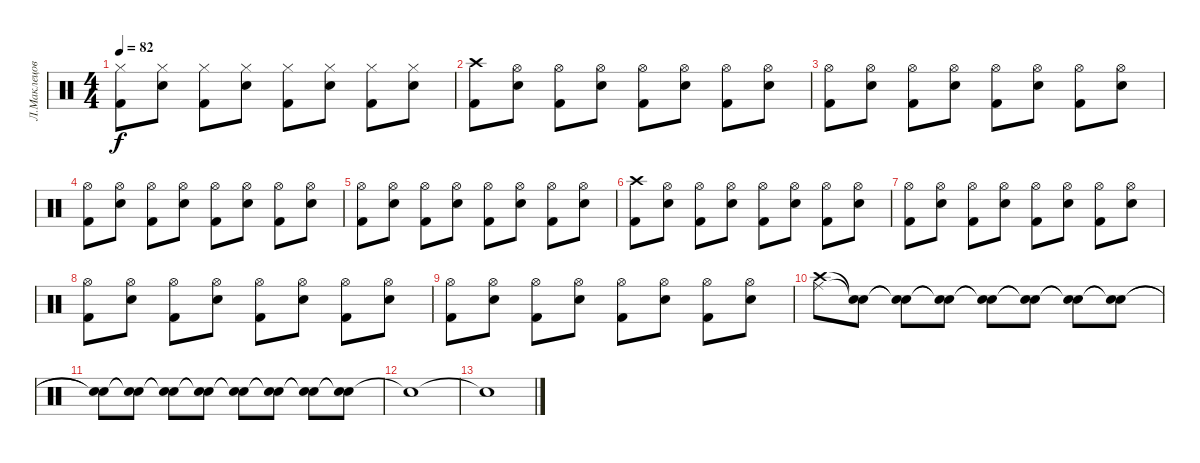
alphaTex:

\track ("Л.Маклецова" "Л.Маклецов") {instrument percussion}
\staff {score}
\articulation defaults
\ts (4 4)
\tempo 82
\clef neutral
\ks c
("Hi-Hat (closed)" "Kick (hit) 2").8{dy f} ("Hi-Hat (closed)" "Snare (hit) 2").8 ("Hi-Hat (closed)" "Kick (hit) 2").8 ("Hi-Hat (closed)" "Snare (hit) 2").8 ("Hi-Hat (closed)" "Kick (hit) 2").8 ("Hi-Hat (closed)" "Snare (hit) 2").8 ("Hi-Hat (closed)" "Kick (hit) 2").8 ("Hi-Hat (closed)" "Snare (hit) 2").8 |
("Crash high (hit)" "Kick (hit) 2").8 ("Hi-Hat (open)" "Snare (hit) 2").8 ("Hi-Hat (open)" "Kick (hit) 2").8 ("Hi-Hat (open)" "Snare (hit) 2").8 ("Hi-Hat (open)" "Kick (hit) 2").8 ("Hi-Hat (open)" "Snare (hit) 2").8 ("Hi-Hat (open)" "Kick (hit) 2").8 ("Hi-Hat (open)" "Snare (hit) 2").8 |
("Hi-Hat (open)" "Kick (hit) 2").8 ("Hi-Hat (open)" "Snare (hit) 2").8 ("Hi-Hat (open)" "Kick (hit) 2").8 ("Hi-Hat (open)" "Snare (hit) 2").8 ("Hi-Hat (open)" "Kick (hit) 2").8 ("Hi-Hat (open)" "Snare (hit) 2").8 ("Hi-Hat (open)" "Kick (hit) 2").8 ("Hi-Hat (open)" "Snare (hit) 2").8 |
("Hi-Hat (open)" "Kick (hit) 2").8 ("Hi-Hat (open)" "Snare (hit) 2").8 ("Hi-Hat (open)" "Kick (hit) 2").8 ("Hi-Hat (open)" "Snare (hit) 2").8 ("Hi-Hat (open)" "Kick (hit) 2").8 ("Hi-Hat (open)" "Snare (hit) 2").8 ("Hi-Hat (open)" "Kick (hit) 2").8 ("Hi-Hat (open)" "Snare (hit) 2").8 |
("Hi-Hat (open)" "Kick (hit) 2").8 ("Hi-Hat (open)" "Snare (hit) 2").8 ("Hi-Hat (open)" "Kick (hit) 2").8 ("Hi-Hat (open)" "Snare (hit) 2").8 ("Hi-Hat (open)" "Kick (hit) 2").8 ("Hi-Hat (open)" "Snare (hit) 2").8 ("Hi-Hat (open)" "Kick (hit) 2").8 ("Hi-Hat (open)" "Snare (hit) 2").8 |
("Crash high (hit)" "Kick (hit) 2").8 ("Hi-Hat (open)" "Snare (hit) 2").8 ("Hi-Hat (open)" "Kick (hit) 2").8 ("Hi-Hat (open)" "Snare (hit) 2").8 ("Hi-Hat (open)" "Kick (hit) 2").8 ("Hi-Hat (open)" "Snare (hit) 2").8 ("Hi-Hat (open)" "Kick (hit) 2").8 ("Hi-Hat (open)" "Snare (hit) 2").8 |
("Hi-Hat (open)" "Kick (hit) 2").8 ("Hi-Hat (open)" "Snare (hit) 2").8 ("Hi-Hat (open)" "Kick (hit) 2").8 ("Hi-Hat (open)" "Snare (hit) 2").8 ("Hi-Hat (open)" "Kick (hit) 2").8 ("Hi-Hat (open)" "Snare (hit) 2").8 ("Hi-Hat (open)" "Kick (hit) 2").8 ("Hi-Hat (open)" "Snare (hit) 2").8 |
("Hi-Hat (open)" "Kick (hit) 2").8 ("Hi-Hat (open)" "Snare (hit) 2").8 ("Hi-Hat (open)" "Kick (hit) 2").8 ("Hi-Hat (open)" "Snare (hit) 2").8 ("Hi-Hat (open)" "Kick (hit) 2").8 ("Hi-Hat (open)" "Snare (hit) 2").8 ("Hi-Hat (open)" "Kick (hit) 2").8 ("Hi-Hat (open)" "Snare (hit) 2").8 |
("Hi-Hat (open)" "Kick (hit) 2").8 ("Hi-Hat (open)" "Snare (hit) 2").8 ("Hi-Hat (open)" "Kick (hit) 2").8 ("Hi-Hat (open)" "Snare (hit) 2").8 ("Hi-Hat (open)" "Kick (hit) 2").8 ("Hi-Hat (open)" "Snare (hit) 2").8 ("Hi-Hat (open)" "Kick (hit) 2").8 ("Hi-Hat (open)" "Snare (hit) 2").8 |
("Crash high (hit)" "Ride (middle)").8 ("Snare (hit)"{t} "Snare (hit)"{t}).8 ("Snare (hit)"{t} "Snare (hit)"{t}).8 ("Snare (hit)"{t} "Snare (hit)"{t}).8 ("Snare (hit)"{t} "Snare (hit)"{t}).8 ("Snare (hit)"{t} "Snare (hit)"{t}).8 ("Snare (hit)"{t} "Snare (hit)"{t}).8 ("Snare (hit)"{t} "Snare (hit)"{t}).8 |
("Snare (hit)"{t} "Snare (hit)"{t}).8 ("Snare (hit)"{t} "Snare (hit)"{t}).8 ("Snare (hit)"{t} "Snare (hit)"{t}).8 ("Snare (hit)"{t} "Snare (hit)"{t}).8 ("Snare (hit)"{t} "Snare (hit)"{t}).8 ("Snare (hit)"{t} "Snare (hit)"{t}).8 ("Snare (hit)"{t} "Snare (hit)"{t}).8 ("Snare (hit)"{t} "Snare (hit)"{t}).8 |
"Snare (hit)"{t}.1 |
"Snare (hit)"{t}.1
